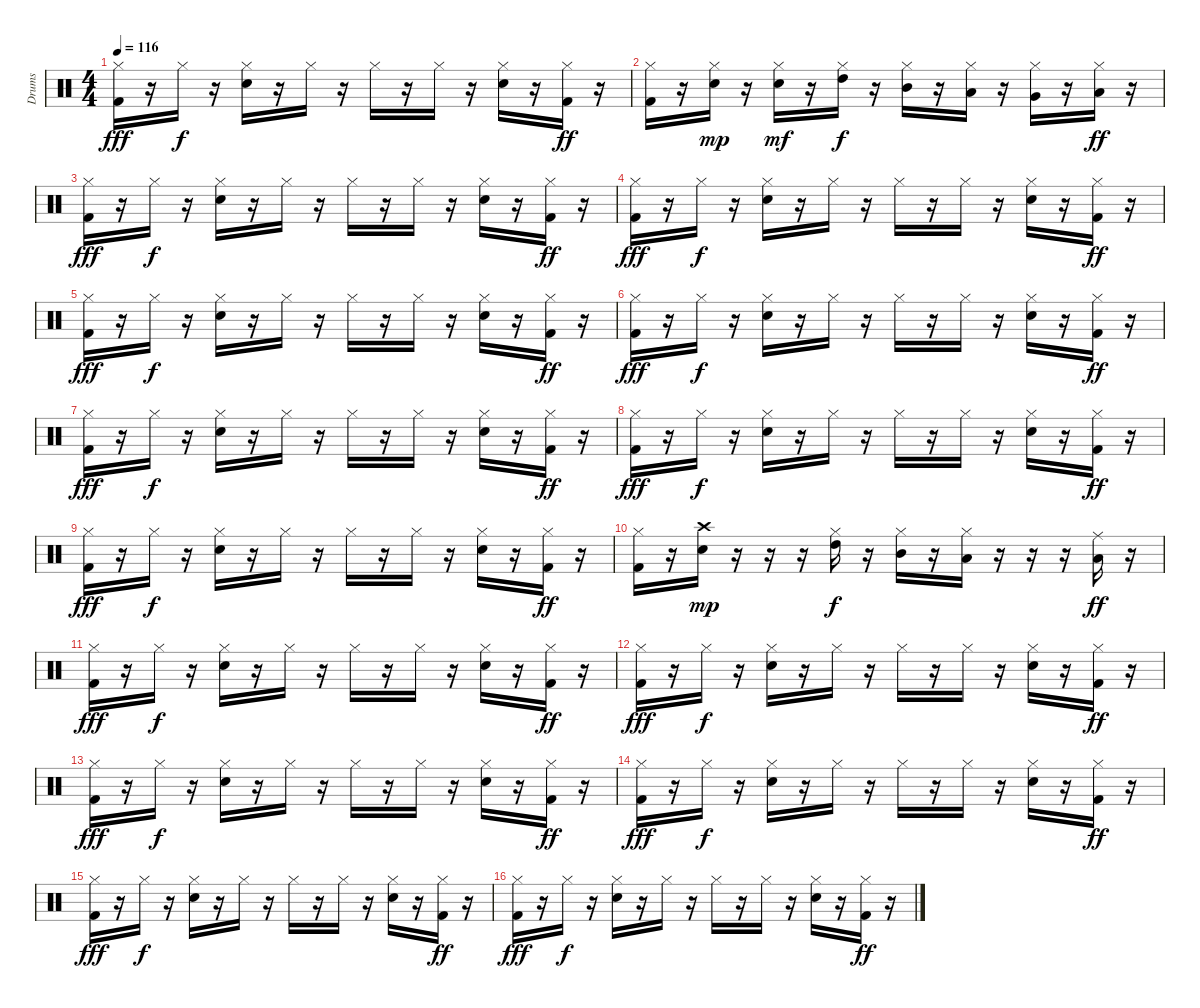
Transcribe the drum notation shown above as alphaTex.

\track ("Drums" "Drums") {instrument percussion}
\staff {score}
\articulation defaults
\ts (4 4)
\tempo 116
\clef neutral
\ks c
("Hi-Hat (closed)" "Kick (hit) 2").16{dy fff} r.16 "Hi-Hat (closed)".16{dy f} r.16 ("Hi-Hat (closed)" "Electric Snare (hit)").16 r.16 "Hi-Hat (closed)".16 r.16 "Hi-Hat (closed)".16 r.16 "Hi-Hat (closed)".16 r.16 ("Hi-Hat (closed)" "Electric Snare (hit)").16 r.16 ("Hi-Hat (closed)" "Kick (hit) 2").16{dy ff} r.16 |
("Hi-Hat (closed)" "Kick (hit) 2").16 r.16 ("Hi-Hat (closed)" "Electric Snare (hit)").16{dy mp} r.16 ("Hi-Hat (closed)" "Snare (hit) 2").16{dy mf} r.16 ("Hi-Hat (closed)" "High Tom (hit)").16{dy f} r.16 ("Hi-Hat (closed)" "Mid Tom (hit)").16 r.16 ("Hi-Hat (closed)" "Low Tom (hit)").16 r.16 ("Hi-Hat (closed)" "Very Low Tom (hit)").16 r.16 ("Hi-Hat (closed)" "Low Floor Tom (hit)").16{dy ff} r.16 |
("Hi-Hat (closed)" "Kick (hit) 2").16{dy fff} r.16 "Hi-Hat (closed)".16{dy f} r.16 ("Hi-Hat (closed)" "Electric Snare (hit)").16 r.16 "Hi-Hat (closed)".16 r.16 "Hi-Hat (closed)".16 r.16 "Hi-Hat (closed)".16 r.16 ("Hi-Hat (closed)" "Electric Snare (hit)").16 r.16 ("Hi-Hat (closed)" "Kick (hit) 2").16{dy ff} r.16 |
("Hi-Hat (closed)" "Kick (hit) 2").16{dy fff} r.16 "Hi-Hat (closed)".16{dy f} r.16 ("Hi-Hat (closed)" "Electric Snare (hit)").16 r.16 "Hi-Hat (closed)".16 r.16 "Hi-Hat (closed)".16 r.16 "Hi-Hat (closed)".16 r.16 ("Hi-Hat (closed)" "Electric Snare (hit)").16 r.16 ("Hi-Hat (closed)" "Kick (hit) 2").16{dy ff} r.16 |
("Hi-Hat (closed)" "Kick (hit) 2").16{dy fff} r.16 "Hi-Hat (closed)".16{dy f} r.16 ("Hi-Hat (closed)" "Electric Snare (hit)").16 r.16 "Hi-Hat (closed)".16 r.16 "Hi-Hat (closed)".16 r.16 "Hi-Hat (closed)".16 r.16 ("Hi-Hat (closed)" "Electric Snare (hit)").16 r.16 ("Hi-Hat (closed)" "Kick (hit) 2").16{dy ff} r.16 |
("Hi-Hat (closed)" "Kick (hit) 2").16{dy fff} r.16 "Hi-Hat (closed)".16{dy f} r.16 ("Hi-Hat (closed)" "Electric Snare (hit)").16 r.16 "Hi-Hat (closed)".16 r.16 "Hi-Hat (closed)".16 r.16 "Hi-Hat (closed)".16 r.16 ("Hi-Hat (closed)" "Electric Snare (hit)").16 r.16 ("Hi-Hat (closed)" "Kick (hit) 2").16{dy ff} r.16 |
("Hi-Hat (closed)" "Kick (hit) 2").16{dy fff} r.16 "Hi-Hat (closed)".16{dy f} r.16 ("Hi-Hat (closed)" "Electric Snare (hit)").16 r.16 "Hi-Hat (closed)".16 r.16 "Hi-Hat (closed)".16 r.16 "Hi-Hat (closed)".16 r.16 ("Hi-Hat (closed)" "Electric Snare (hit)").16 r.16 ("Hi-Hat (closed)" "Kick (hit) 2").16{dy ff} r.16 |
("Hi-Hat (closed)" "Kick (hit) 2").16{dy fff} r.16 "Hi-Hat (closed)".16{dy f} r.16 ("Hi-Hat (closed)" "Electric Snare (hit)").16 r.16 "Hi-Hat (closed)".16 r.16 "Hi-Hat (closed)".16 r.16 "Hi-Hat (closed)".16 r.16 ("Hi-Hat (closed)" "Electric Snare (hit)").16 r.16 ("Hi-Hat (closed)" "Kick (hit) 2").16{dy ff} r.16 |
("Hi-Hat (closed)" "Kick (hit) 2").16{dy fff} r.16 "Hi-Hat (closed)".16{dy f} r.16 ("Hi-Hat (closed)" "Electric Snare (hit)").16 r.16 "Hi-Hat (closed)".16 r.16 "Hi-Hat (closed)".16 r.16 "Hi-Hat (closed)".16 r.16 ("Hi-Hat (closed)" "Electric Snare (hit)").16 r.16 ("Hi-Hat (closed)" "Kick (hit) 2").16{dy ff} r.16 |
("Hi-Hat (closed)" "Kick (hit) 2").16 r.16 ("Crash high (hit)" "Electric Snare (hit)").16{dy mp} r.16 r.16 r.16 ("Hi-Hat (closed)" "High Tom (hit)").16{dy f} r.16 ("Hi-Hat (closed)" "Mid Tom (hit)").16 r.16 ("Hi-Hat (closed)" "Low Tom (hit)").16 r.16 r.16 r.16 ("Ride (middle)" "Low Floor Tom (hit)").16{dy ff} r.16 |
("Hi-Hat (closed)" "Kick (hit) 2").16{dy fff} r.16 "Hi-Hat (closed)".16{dy f} r.16 ("Hi-Hat (closed)" "Electric Snare (hit)").16 r.16 "Hi-Hat (closed)".16 r.16 "Hi-Hat (closed)".16 r.16 "Hi-Hat (closed)".16 r.16 ("Hi-Hat (closed)" "Electric Snare (hit)").16 r.16 ("Hi-Hat (closed)" "Kick (hit) 2").16{dy ff} r.16 |
("Hi-Hat (closed)" "Kick (hit) 2").16{dy fff} r.16 "Hi-Hat (closed)".16{dy f} r.16 ("Hi-Hat (closed)" "Electric Snare (hit)").16 r.16 "Hi-Hat (closed)".16 r.16 "Hi-Hat (closed)".16 r.16 "Hi-Hat (closed)".16 r.16 ("Hi-Hat (closed)" "Electric Snare (hit)").16 r.16 ("Hi-Hat (closed)" "Kick (hit) 2").16{dy ff} r.16 |
("Hi-Hat (closed)" "Kick (hit) 2").16{dy fff} r.16 "Hi-Hat (closed)".16{dy f} r.16 ("Hi-Hat (closed)" "Electric Snare (hit)").16 r.16 "Hi-Hat (closed)".16 r.16 "Hi-Hat (closed)".16 r.16 "Hi-Hat (closed)".16 r.16 ("Hi-Hat (closed)" "Electric Snare (hit)").16 r.16 ("Hi-Hat (closed)" "Kick (hit) 2").16{dy ff} r.16 |
("Hi-Hat (closed)" "Kick (hit) 2").16{dy fff} r.16 "Hi-Hat (closed)".16{dy f} r.16 ("Hi-Hat (closed)" "Electric Snare (hit)").16 r.16 "Hi-Hat (closed)".16 r.16 "Hi-Hat (closed)".16 r.16 "Hi-Hat (closed)".16 r.16 ("Hi-Hat (closed)" "Electric Snare (hit)").16 r.16 ("Hi-Hat (closed)" "Kick (hit) 2").16{dy ff} r.16 |
("Hi-Hat (closed)" "Kick (hit) 2").16{dy fff} r.16 "Hi-Hat (closed)".16{dy f} r.16 ("Hi-Hat (closed)" "Electric Snare (hit)").16 r.16 "Hi-Hat (closed)".16 r.16 "Hi-Hat (closed)".16 r.16 "Hi-Hat (closed)".16 r.16 ("Hi-Hat (closed)" "Electric Snare (hit)").16 r.16 ("Hi-Hat (closed)" "Kick (hit) 2").16{dy ff} r.16 |
("Hi-Hat (closed)" "Kick (hit) 2").16{dy fff} r.16 "Hi-Hat (closed)".16{dy f} r.16 ("Hi-Hat (closed)" "Electric Snare (hit)").16 r.16 "Hi-Hat (closed)".16 r.16 "Hi-Hat (closed)".16 r.16 "Hi-Hat (closed)".16 r.16 ("Hi-Hat (closed)" "Electric Snare (hit)").16 r.16 ("Hi-Hat (closed)" "Kick (hit) 2").16{dy ff} r.16
